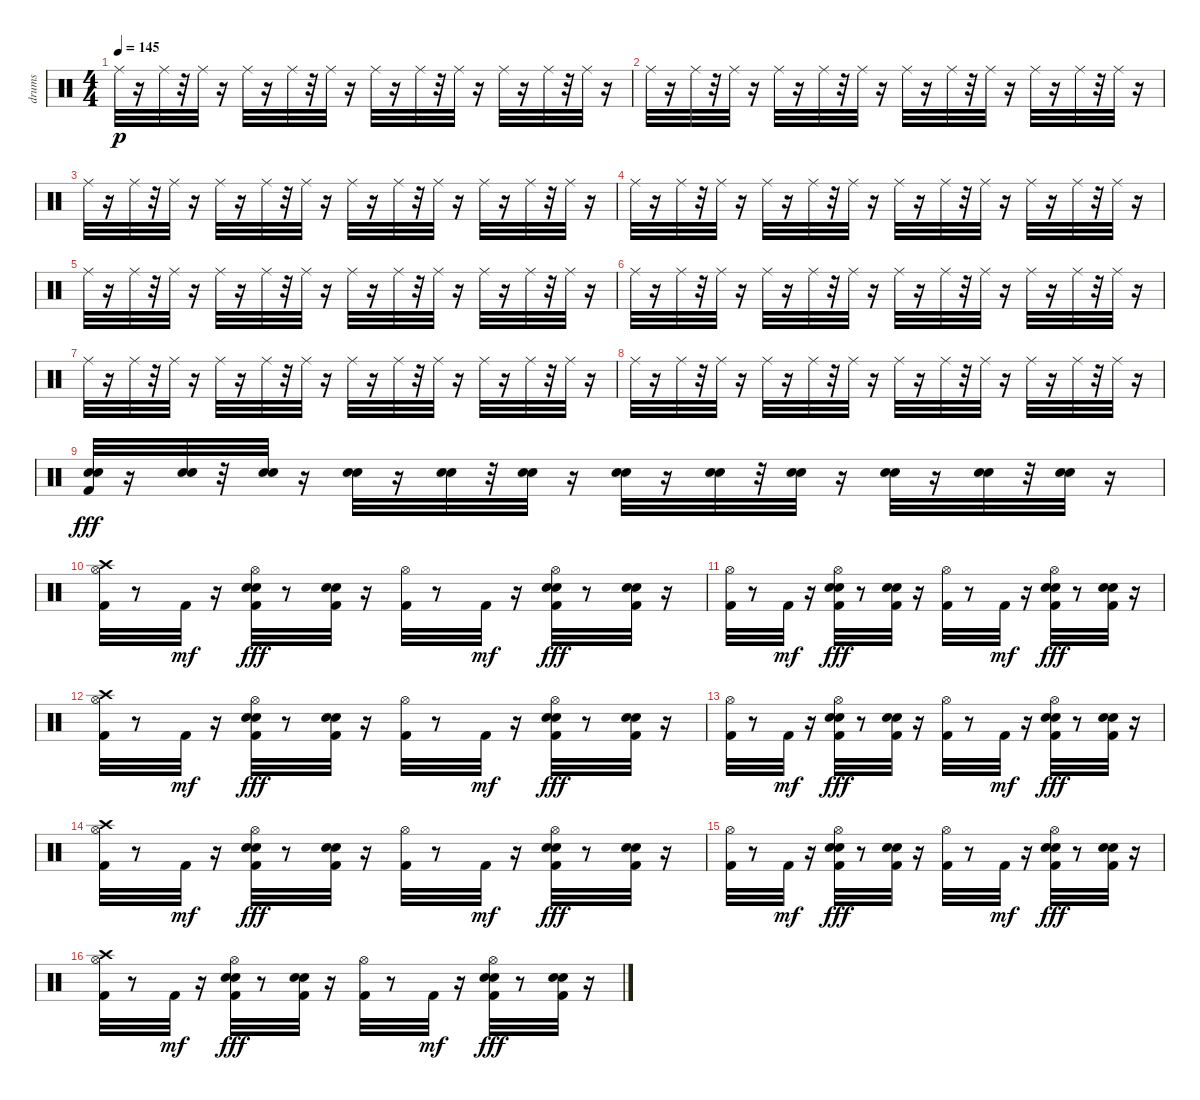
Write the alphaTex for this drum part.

\track ("drums" "drums") {instrument percussion}
\staff {score}
\articulation defaults
\ts (4 4)
\tempo 145
\clef neutral
\ks c "Ride (middle)".32{dy p}
r.16 "Ride (middle)".32 r.32 "Ride (middle)".32 r.16 "Ride (middle)".32 r.16 "Ride (middle)".32 r.32 "Ride (middle)".32 r.16 "Ride (middle)".32 r.16 "Ride (middle)".32 r.32 "Ride (middle)".32 r.16 "Ride (middle)".32 r.16 "Ride (middle)".32 r.32 "Ride (middle)".32 r.16 |
"Ride (middle)".32 r.16 "Ride (middle)".32 r.32 "Ride (middle)".32 r.16 "Ride (middle)".32 r.16 "Ride (middle)".32 r.32 "Ride (middle)".32 r.16 "Ride (middle)".32 r.16 "Ride (middle)".32 r.32 "Ride (middle)".32 r.16 "Ride (middle)".32 r.16 "Ride (middle)".32 r.32 "Ride (middle)".32 r.16 |
"Ride (middle)".32 r.16 "Ride (middle)".32 r.32 "Ride (middle)".32 r.16 "Ride (middle)".32 r.16 "Ride (middle)".32 r.32 "Ride (middle)".32 r.16 "Ride (middle)".32 r.16 "Ride (middle)".32 r.32 "Ride (middle)".32 r.16 "Ride (middle)".32 r.16 "Ride (middle)".32 r.32 "Ride (middle)".32 r.16 |
"Ride (middle)".32 r.16 "Ride (middle)".32 r.32 "Ride (middle)".32 r.16 "Ride (middle)".32 r.16 "Ride (middle)".32 r.32 "Ride (middle)".32 r.16 "Ride (middle)".32 r.16 "Ride (middle)".32 r.32 "Ride (middle)".32 r.16 "Ride (middle)".32 r.16 "Ride (middle)".32 r.32 "Ride (middle)".32 r.16 |
"Ride (middle)".32 r.16 "Ride (middle)".32 r.32 "Ride (middle)".32 r.16 "Ride (middle)".32 r.16 "Ride (middle)".32 r.32 "Ride (middle)".32 r.16 "Ride (middle)".32 r.16 "Ride (middle)".32 r.32 "Ride (middle)".32 r.16 "Ride (middle)".32 r.16 "Ride (middle)".32 r.32 "Ride (middle)".32 r.16 |
"Ride (middle)".32 r.16 "Ride (middle)".32 r.32 "Ride (middle)".32 r.16 "Ride (middle)".32 r.16 "Ride (middle)".32 r.32 "Ride (middle)".32 r.16 "Ride (middle)".32 r.16 "Ride (middle)".32 r.32 "Ride (middle)".32 r.16 "Ride (middle)".32 r.16 "Ride (middle)".32 r.32 "Ride (middle)".32 r.16 |
"Ride (middle)".32 r.16 "Ride (middle)".32 r.32 "Ride (middle)".32 r.16 "Ride (middle)".32 r.16 "Ride (middle)".32 r.32 "Ride (middle)".32 r.16 "Ride (middle)".32 r.16 "Ride (middle)".32 r.32 "Ride (middle)".32 r.16 "Ride (middle)".32 r.16 "Ride (middle)".32 r.32 "Ride (middle)".32 r.16 |
"Ride (middle)".32 r.16 "Ride (middle)".32 r.32 "Ride (middle)".32 r.16 "Ride (middle)".32 r.16 "Ride (middle)".32 r.32 "Ride (middle)".32 r.16 "Ride (middle)".32 r.16 "Ride (middle)".32 r.32 "Ride (middle)".32 r.16 "Ride (middle)".32 r.16 "Ride (middle)".32 r.32 "Ride (middle)".32 r.16 |
("Kick (hit) 2" "Snare (hit) 2" "Electric Snare (hit)").32{dy fff} r.16 ("Snare (hit) 2" "Electric Snare (hit)").32 r.32 ("Snare (hit) 2" "Electric Snare (hit)").32 r.16 ("Snare (hit) 2" "Electric Snare (hit)").32 r.16 ("Snare (hit) 2" "Electric Snare (hit)").32 r.32 ("Snare (hit) 2" "Electric Snare (hit)").32 r.16 ("Snare (hit) 2" "Electric Snare (hit)").32 r.16 ("Snare (hit) 2" "Electric Snare (hit)").32 r.32 ("Snare (hit) 2" "Electric Snare (hit)").32 r.16 ("Snare (hit) 2" "Electric Snare (hit)").32 r.16 ("Snare (hit) 2" "Electric Snare (hit)").32 r.32 ("Snare (hit) 2" "Electric Snare (hit)").32 r.16 |
("Hi-Hat (open)" "Crash high (hit)" "Kick (hit) 2").32 r.8 "Kick (hit) 2".32{dy mf} r.16 ("Kick (hit) 2" "Hi-Hat (open)" "Snare (hit) 2" "Electric Snare (hit)").32{dy fff} r.8 ("Kick (hit) 2" "Snare (hit) 2" "Electric Snare (hit)").32 r.16 ("Kick (hit) 2" "Hi-Hat (open)").32 r.8 "Kick (hit) 2".32{dy mf} r.16 ("Kick (hit) 2" "Hi-Hat (open)" "Snare (hit) 2" "Electric Snare (hit)").32{dy fff} r.8 ("Kick (hit) 2" "Snare (hit) 2" "Electric Snare (hit)").32 r.16 |
("Hi-Hat (open)" "Kick (hit) 2").32 r.8 "Kick (hit) 2".32{dy mf} r.16 ("Kick (hit) 2" "Hi-Hat (open)" "Snare (hit) 2" "Electric Snare (hit)").32{dy fff} r.8 ("Kick (hit) 2" "Snare (hit) 2" "Electric Snare (hit)").32 r.16 ("Kick (hit) 2" "Hi-Hat (open)").32 r.8 "Kick (hit) 2".32{dy mf} r.16 ("Kick (hit) 2" "Hi-Hat (open)" "Snare (hit) 2" "Electric Snare (hit)").32{dy fff} r.8 ("Kick (hit) 2" "Snare (hit) 2" "Electric Snare (hit)").32 r.16 |
("Hi-Hat (open)" "Crash high (hit)" "Kick (hit) 2").32 r.8 "Kick (hit) 2".32{dy mf} r.16 ("Kick (hit) 2" "Hi-Hat (open)" "Snare (hit) 2" "Electric Snare (hit)").32{dy fff} r.8 ("Kick (hit) 2" "Snare (hit) 2" "Electric Snare (hit)").32 r.16 ("Kick (hit) 2" "Hi-Hat (open)").32 r.8 "Kick (hit) 2".32{dy mf} r.16 ("Kick (hit) 2" "Hi-Hat (open)" "Snare (hit) 2" "Electric Snare (hit)").32{dy fff} r.8 ("Kick (hit) 2" "Snare (hit) 2" "Electric Snare (hit)").32 r.16 |
("Hi-Hat (open)" "Kick (hit) 2").32 r.8 "Kick (hit) 2".32{dy mf} r.16 ("Kick (hit) 2" "Hi-Hat (open)" "Snare (hit) 2" "Electric Snare (hit)").32{dy fff} r.8 ("Kick (hit) 2" "Snare (hit) 2" "Electric Snare (hit)").32 r.16 ("Kick (hit) 2" "Hi-Hat (open)").32 r.8 "Kick (hit) 2".32{dy mf} r.16 ("Kick (hit) 2" "Hi-Hat (open)" "Snare (hit) 2" "Electric Snare (hit)").32{dy fff} r.8 ("Kick (hit) 2" "Snare (hit) 2" "Electric Snare (hit)").32 r.16 |
("Hi-Hat (open)" "Crash high (hit)" "Kick (hit) 2").32 r.8 "Kick (hit) 2".32{dy mf} r.16 ("Kick (hit) 2" "Hi-Hat (open)" "Snare (hit) 2" "Electric Snare (hit)").32{dy fff} r.8 ("Kick (hit) 2" "Snare (hit) 2" "Electric Snare (hit)").32 r.16 ("Kick (hit) 2" "Hi-Hat (open)").32 r.8 "Kick (hit) 2".32{dy mf} r.16 ("Kick (hit) 2" "Hi-Hat (open)" "Snare (hit) 2" "Electric Snare (hit)").32{dy fff} r.8 ("Kick (hit) 2" "Snare (hit) 2" "Electric Snare (hit)").32 r.16 |
("Hi-Hat (open)" "Kick (hit) 2").32 r.8 "Kick (hit) 2".32{dy mf} r.16 ("Kick (hit) 2" "Hi-Hat (open)" "Snare (hit) 2" "Electric Snare (hit)").32{dy fff} r.8 ("Kick (hit) 2" "Snare (hit) 2" "Electric Snare (hit)").32 r.16 ("Kick (hit) 2" "Hi-Hat (open)").32 r.8 "Kick (hit) 2".32{dy mf} r.16 ("Kick (hit) 2" "Hi-Hat (open)" "Snare (hit) 2" "Electric Snare (hit)").32{dy fff} r.8 ("Kick (hit) 2" "Snare (hit) 2" "Electric Snare (hit)").32 r.16 |
("Hi-Hat (open)" "Crash high (hit)" "Kick (hit) 2").32 r.8 "Kick (hit) 2".32{dy mf} r.16 ("Kick (hit) 2" "Hi-Hat (open)" "Snare (hit) 2" "Electric Snare (hit)").32{dy fff} r.8 ("Kick (hit) 2" "Snare (hit) 2" "Electric Snare (hit)").32 r.16 ("Kick (hit) 2" "Hi-Hat (open)").32 r.8 "Kick (hit) 2".32{dy mf} r.16 ("Kick (hit) 2" "Hi-Hat (open)" "Snare (hit) 2" "Electric Snare (hit)").32{dy fff} r.8 ("Kick (hit) 2" "Snare (hit) 2" "Electric Snare (hit)").32 r.16
